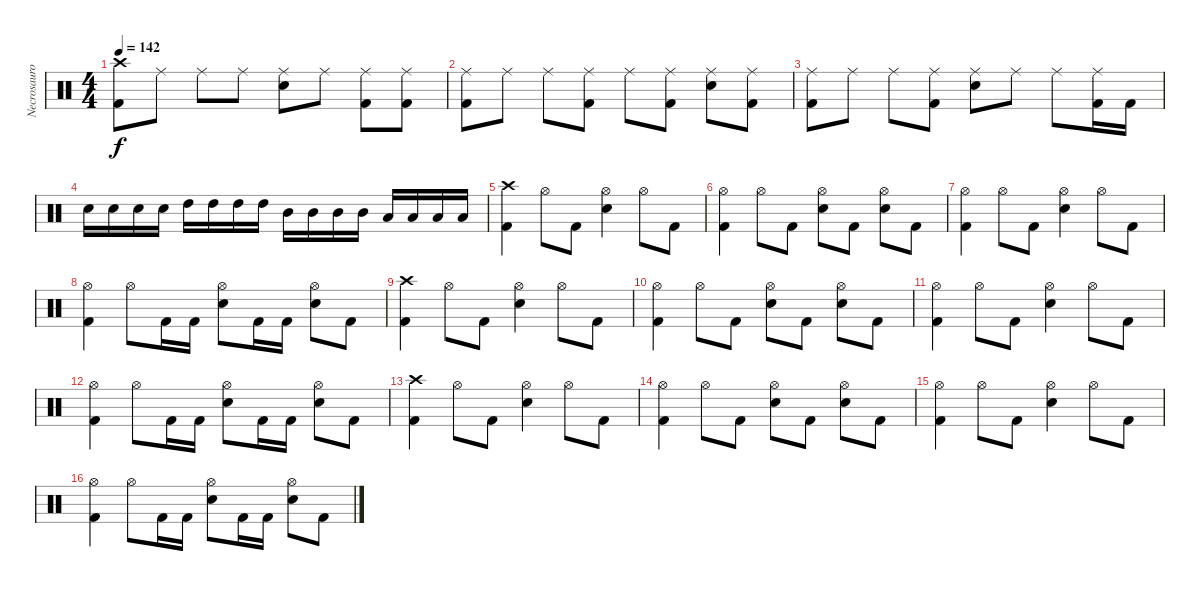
\track ("Necrosauron" "Necrosauro") {instrument percussion}
\staff {score}
\articulation defaults
\ts (4 4)
\tempo 142
\clef neutral
\ks c
("Crash high (hit)" "Kick (hit) 2").8{dy f} "Ride (middle)".8 "Ride (middle)".8 "Ride (middle)".8 ("Ride (middle)" "Snare (hit) 2").8 "Ride (middle)".8 ("Ride (middle)" "Kick (hit) 2").8 ("Ride (middle)" "Kick (hit) 2").8 |
("Ride (middle)" "Kick (hit) 2").8 "Ride (middle)".8 "Ride (middle)".8 ("Ride (middle)" "Kick (hit) 2").8 "Ride (middle)".8 ("Ride (middle)" "Kick (hit) 2").8 ("Ride (middle)" "Snare (hit) 2").8 ("Ride (middle)" "Kick (hit) 2").8 |
("Ride (middle)" "Kick (hit) 2").8 "Ride (middle)".8 "Ride (middle)".8 ("Ride (middle)" "Kick (hit) 2").8 ("Ride (middle)" "Snare (hit) 2").8 "Ride (middle)".8 "Ride (middle)".8 ("Ride (middle)" "Kick (hit) 2").16 "Kick (hit) 2".16 |
"Snare (hit) 2".16 "Snare (hit) 2".16 "Snare (hit) 2".16 "Snare (hit) 2".16 "High Tom (hit)".16 "High Tom (hit)".16 "High Tom (hit)".16 "High Tom (hit)".16 "Mid Tom (hit)".16 "Mid Tom (hit)".16 "Mid Tom (hit)".16 "Mid Tom (hit)".16 "Low Tom (hit)".16 "Low Tom (hit)".16 "Low Tom (hit)".16 "Low Tom (hit)".16 |
("Crash high (hit)" "Kick (hit) 2").4 "Hi-Hat (open)".8 "Kick (hit) 2".8 ("Hi-Hat (open)" "Snare (hit) 2").4 "Hi-Hat (open)".8 "Kick (hit) 2".8 |
("Hi-Hat (open)" "Kick (hit) 2").4 "Hi-Hat (open)".8 "Kick (hit) 2".8 ("Hi-Hat (open)" "Snare (hit) 2").8 "Kick (hit) 2".8 ("Hi-Hat (open)" "Snare (hit) 2").8 "Kick (hit) 2".8 |
("Hi-Hat (open)" "Kick (hit) 2").4 "Hi-Hat (open)".8 "Kick (hit) 2".8 ("Hi-Hat (open)" "Snare (hit) 2").4 "Hi-Hat (open)".8 "Kick (hit) 2".8 |
("Hi-Hat (open)" "Kick (hit) 2").4 "Hi-Hat (open)".8 "Kick (hit) 2".16 "Kick (hit) 2".16 ("Hi-Hat (open)" "Snare (hit) 2").8 "Kick (hit) 2".16 "Kick (hit) 2".16 ("Hi-Hat (open)" "Snare (hit) 2").8 "Kick (hit) 2".8 |
("Crash high (hit)" "Kick (hit) 2").4 "Hi-Hat (open)".8 "Kick (hit) 2".8 ("Hi-Hat (open)" "Snare (hit) 2").4 "Hi-Hat (open)".8 "Kick (hit) 2".8 |
("Hi-Hat (open)" "Kick (hit) 2").4 "Hi-Hat (open)".8 "Kick (hit) 2".8 ("Hi-Hat (open)" "Snare (hit) 2").8 "Kick (hit) 2".8 ("Hi-Hat (open)" "Snare (hit) 2").8 "Kick (hit) 2".8 |
("Hi-Hat (open)" "Kick (hit) 2").4 "Hi-Hat (open)".8 "Kick (hit) 2".8 ("Hi-Hat (open)" "Snare (hit) 2").4 "Hi-Hat (open)".8 "Kick (hit) 2".8 |
("Hi-Hat (open)" "Kick (hit) 2").4 "Hi-Hat (open)".8 "Kick (hit) 2".16 "Kick (hit) 2".16 ("Hi-Hat (open)" "Snare (hit) 2").8 "Kick (hit) 2".16 "Kick (hit) 2".16 ("Hi-Hat (open)" "Snare (hit) 2").8 "Kick (hit) 2".8 |
("Crash high (hit)" "Kick (hit) 2").4 "Hi-Hat (open)".8 "Kick (hit) 2".8 ("Hi-Hat (open)" "Snare (hit) 2").4 "Hi-Hat (open)".8 "Kick (hit) 2".8 |
("Hi-Hat (open)" "Kick (hit) 2").4 "Hi-Hat (open)".8 "Kick (hit) 2".8 ("Hi-Hat (open)" "Snare (hit) 2").8 "Kick (hit) 2".8 ("Hi-Hat (open)" "Snare (hit) 2").8 "Kick (hit) 2".8 |
("Hi-Hat (open)" "Kick (hit) 2").4 "Hi-Hat (open)".8 "Kick (hit) 2".8 ("Hi-Hat (open)" "Snare (hit) 2").4 "Hi-Hat (open)".8 "Kick (hit) 2".8 |
("Hi-Hat (open)" "Kick (hit) 2").4 "Hi-Hat (open)".8 "Kick (hit) 2".16 "Kick (hit) 2".16 ("Hi-Hat (open)" "Snare (hit) 2").8 "Kick (hit) 2".16 "Kick (hit) 2".16 ("Hi-Hat (open)" "Snare (hit) 2").8 "Kick (hit) 2".8
